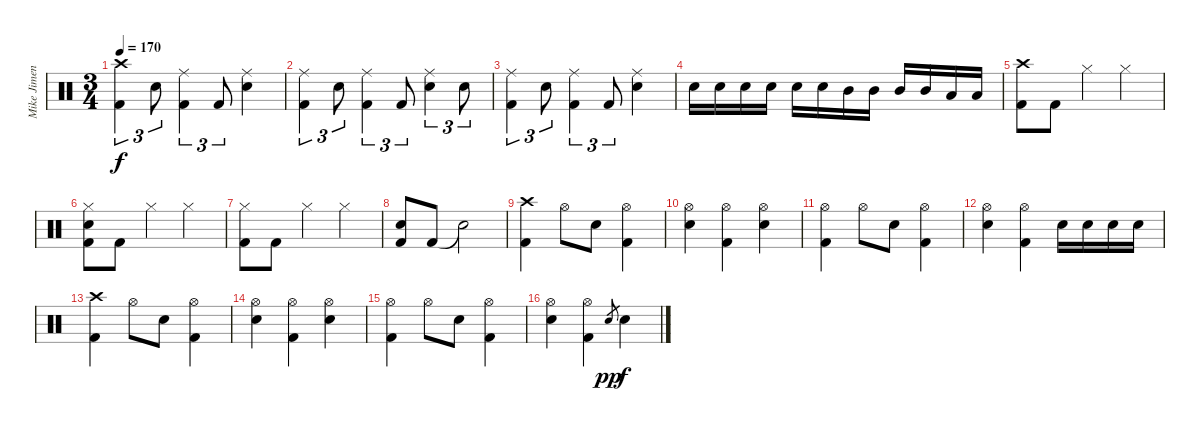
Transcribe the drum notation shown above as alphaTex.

\track ("Mike Jimenez" "Mike Jimen") {instrument percussion}
\staff {score}
\articulation defaults
\ts (3 4)
\tempo 170
\clef neutral
\ks c
("Crash high (hit)" "Kick (hit) 2").4{tu (3 2) dy f} "Electric Snare (hit)".8{tu (3 2)} ("Ride (middle)" "Kick (hit) 2").4{tu (3 2)} "Kick (hit) 2".8{tu (3 2)} ("Ride (middle)" "Electric Snare (hit)").4 |
("Ride (middle)" "Kick (hit) 2").4{tu (3 2)} "Electric Snare (hit)".8{tu (3 2)} ("Ride (middle)" "Kick (hit) 2").4{tu (3 2)} "Kick (hit) 2".8{tu (3 2)} ("Ride (middle)" "Electric Snare (hit)").4{tu (3 2)} "Electric Snare (hit)".8{tu (3 2)} |
("Ride (middle)" "Kick (hit) 2").4{tu (3 2)} "Electric Snare (hit)".8{tu (3 2)} ("Ride (middle)" "Kick (hit) 2").4{tu (3 2)} "Kick (hit) 2".8{tu (3 2)} ("Ride (middle)" "Electric Snare (hit)").4 |
"Electric Snare (hit)".16 "Electric Snare (hit)".16 "Electric Snare (hit)".16 "Electric Snare (hit)".16 "Electric Snare (hit)".16 "Electric Snare (hit)".16 "Mid Tom (hit)".16 "Mid Tom (hit)".16 "Mid Tom (hit)".16 "Mid Tom (hit)".16 "Low Tom (hit)".16 "Low Tom (hit)".16 |
("Crash high (hit)" "Kick (hit) 2").8 "Kick (hit) 2".8 "Hi-Hat (closed)".4 "Hi-Hat (closed)".4 |
("Hi-Hat (closed)" "Electric Snare (hit)" "Kick (hit) 2").8 "Kick (hit) 2".8 "Hi-Hat (closed)".4 "Hi-Hat (closed)".4 |
("Hi-Hat (closed)" "Kick (hit) 2").8 "Kick (hit) 2".8 "Hi-Hat (closed)".4 "Hi-Hat (closed)".4 |
("Electric Snare (hit)" "Kick (hit) 2").8 "Kick (hit) 2".8 "Snare (hit)"{t}.2 |
("Crash high (hit)" "Kick (hit) 2").4 "Hi-Hat (open)".8 "Electric Snare (hit)".8 ("Hi-Hat (open)" "Kick (hit) 2").4 |
("Hi-Hat (open)" "Electric Snare (hit)").4 ("Hi-Hat (open)" "Kick (hit) 2").4 ("Hi-Hat (open)" "Electric Snare (hit)").4 |
("Hi-Hat (open)" "Kick (hit) 2").4 "Hi-Hat (open)".8 "Electric Snare (hit)".8 ("Hi-Hat (open)" "Kick (hit) 2").4 |
("Hi-Hat (open)" "Electric Snare (hit)").4 ("Hi-Hat (open)" "Kick (hit) 2").4 "Electric Snare (hit)".16 "Electric Snare (hit)".16 "Electric Snare (hit)".16 "Electric Snare (hit)".16 |
("Crash high (hit)" "Kick (hit) 2").4 "Hi-Hat (open)".8 "Electric Snare (hit)".8 ("Hi-Hat (open)" "Kick (hit) 2").4 |
("Hi-Hat (open)" "Electric Snare (hit)").4 ("Hi-Hat (open)" "Kick (hit) 2").4 ("Hi-Hat (open)" "Electric Snare (hit)").4 |
("Hi-Hat (open)" "Kick (hit) 2").4 "Hi-Hat (open)".8 "Electric Snare (hit)".8 ("Hi-Hat (open)" "Kick (hit) 2").4 |
("Hi-Hat (open)" "Electric Snare (hit)").4 ("Hi-Hat (open)" "Kick (hit) 2").4 "Electric Snare (hit)".8{gr dy pp} "Electric Snare (hit)".4{dy f}
